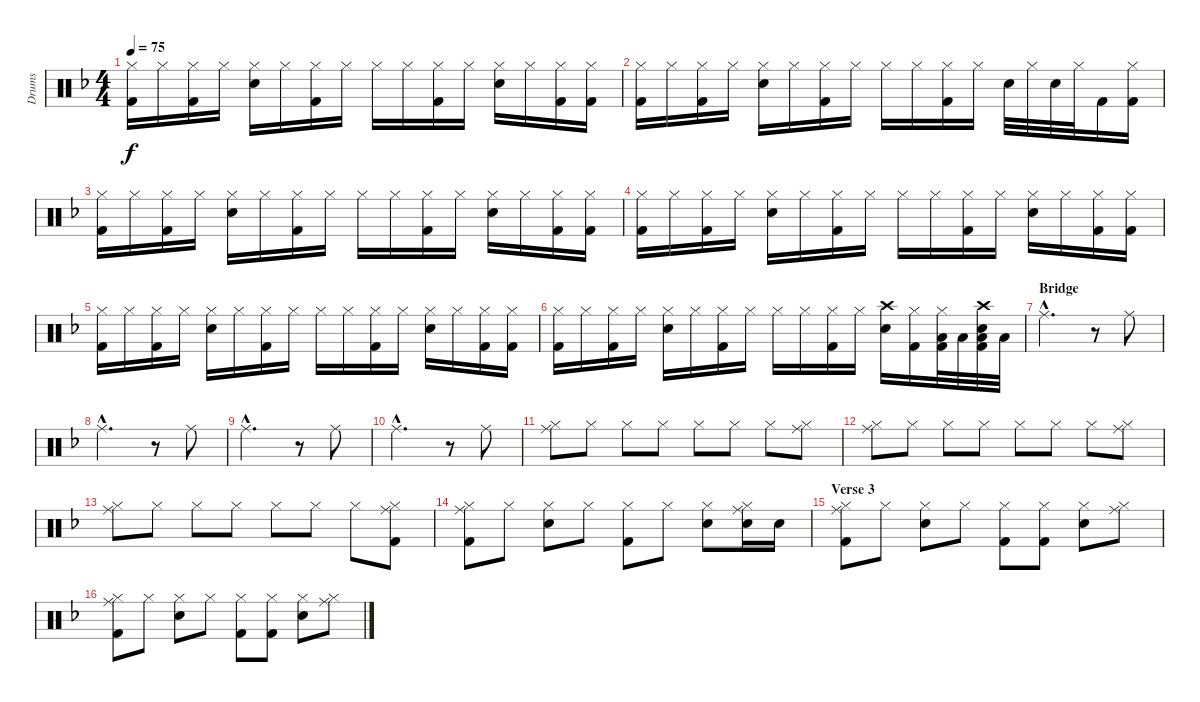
\track ("Drums" "Drums") {instrument percussion}
\staff {score}
\articulation defaults
\ts (4 4)
\tempo 75
\clef neutral
\ks dminor
("Hi-Hat (closed)" "Kick (hit) 2").16{dy f} "Hi-Hat (closed)".16 ("Hi-Hat (closed)" "Kick (hit) 2").16 "Hi-Hat (closed)".16 ("Hi-Hat (closed)" "Snare (hit) 2").16 "Hi-Hat (closed)".16 ("Hi-Hat (closed)" "Kick (hit) 2").16 "Hi-Hat (closed)".16 "Hi-Hat (closed)".16 "Hi-Hat (closed)".16 ("Hi-Hat (closed)" "Kick (hit) 2").16 "Hi-Hat (closed)".16 ("Hi-Hat (closed)" "Snare (hit) 2").16 "Hi-Hat (closed)".16 ("Hi-Hat (closed)" "Kick (hit) 2").16 ("Hi-Hat (closed)" "Kick (hit) 2").16 |
("Hi-Hat (closed)" "Kick (hit) 2").16 "Hi-Hat (closed)".16 ("Hi-Hat (closed)" "Kick (hit) 2").16 "Hi-Hat (closed)".16 ("Hi-Hat (closed)" "Snare (hit) 2").16 "Hi-Hat (closed)".16 ("Hi-Hat (closed)" "Kick (hit) 2").16 "Hi-Hat (closed)".16 "Hi-Hat (closed)".16 "Hi-Hat (closed)".16 ("Hi-Hat (closed)" "Kick (hit) 2").16 "Hi-Hat (closed)".16 "Snare (hit) 2".32 "Hi-Hat (closed)".32 "Snare (hit) 2".32 "Hi-Hat (closed)".32 "Kick (hit) 2".16 ("Hi-Hat (closed)" "Kick (hit) 2").16 |
("Hi-Hat (closed)" "Kick (hit) 2").16 "Hi-Hat (closed)".16 ("Hi-Hat (closed)" "Kick (hit) 2").16 "Hi-Hat (closed)".16 ("Hi-Hat (closed)" "Snare (hit) 2").16 "Hi-Hat (closed)".16 ("Hi-Hat (closed)" "Kick (hit) 2").16 "Hi-Hat (closed)".16 "Hi-Hat (closed)".16 "Hi-Hat (closed)".16 ("Hi-Hat (closed)" "Kick (hit) 2").16 "Hi-Hat (closed)".16 ("Hi-Hat (closed)" "Snare (hit) 2").16 "Hi-Hat (closed)".16 ("Hi-Hat (closed)" "Kick (hit) 2").16 ("Hi-Hat (closed)" "Kick (hit) 2").16 |
("Hi-Hat (closed)" "Kick (hit) 2").16 "Hi-Hat (closed)".16 ("Hi-Hat (closed)" "Kick (hit) 2").16 "Hi-Hat (closed)".16 ("Hi-Hat (closed)" "Snare (hit) 2").16 "Hi-Hat (closed)".16 ("Hi-Hat (closed)" "Kick (hit) 2").16 "Hi-Hat (closed)".16 "Hi-Hat (closed)".16 "Hi-Hat (closed)".16 ("Hi-Hat (closed)" "Kick (hit) 2").16 "Hi-Hat (closed)".16 ("Hi-Hat (closed)" "Snare (hit) 2").16 "Hi-Hat (closed)".16 ("Hi-Hat (closed)" "Kick (hit) 2").16 ("Hi-Hat (closed)" "Kick (hit) 2").16 |
("Hi-Hat (closed)" "Kick (hit) 2").16 "Hi-Hat (closed)".16 ("Hi-Hat (closed)" "Kick (hit) 2").16 "Hi-Hat (closed)".16 ("Hi-Hat (closed)" "Snare (hit) 2").16 "Hi-Hat (closed)".16 ("Hi-Hat (closed)" "Kick (hit) 2").16 "Hi-Hat (closed)".16 "Hi-Hat (closed)".16 "Hi-Hat (closed)".16 ("Hi-Hat (closed)" "Kick (hit) 2").16 "Hi-Hat (closed)".16 ("Hi-Hat (closed)" "Snare (hit) 2").16 "Hi-Hat (closed)".16 ("Hi-Hat (closed)" "Kick (hit) 2").16 ("Hi-Hat (closed)" "Kick (hit) 2").16 |
("Hi-Hat (closed)" "Kick (hit) 2").16 "Hi-Hat (closed)".16 ("Hi-Hat (closed)" "Kick (hit) 2").16 "Hi-Hat (closed)".16 ("Hi-Hat (closed)" "Snare (hit) 2").16 "Hi-Hat (closed)".16 ("Hi-Hat (closed)" "Kick (hit) 2").16 "Hi-Hat (closed)".16 "Hi-Hat (closed)".16 "Hi-Hat (closed)".16 ("Hi-Hat (closed)" "Kick (hit) 2").16 "Hi-Hat (closed)".16 ("Crash high (hit)" "Snare (hit) 2").16 ("Hi-Hat (closed)" "Kick (hit) 2").16 ("Hi-Hat (closed)" "Kick (hit) 2" "Low Tom (hit)").32 "Low Tom (hit)".32 ("Crash high (hit)" "Snare (hit) 2" "Low Floor Tom (hit)" "Kick (hit) 2").32 "Low Floor Tom (hit)".32 |
\section ("" "Bridge")
"Ride (middle)"{hac}.2{d} r.8 "Ride (middle)".8 |
"Ride (middle)"{hac}.2{d} r.8 "Ride (middle)".8 |
"Ride (middle)"{hac}.2{d} r.8 "Ride (middle)".8 |
"Ride (middle)"{hac}.2{d} r.8 "Ride (middle)".8 |
("Hi-Hat (closed)" "Ride (middle)").8 "Hi-Hat (closed)".8 "Hi-Hat (closed)".8 "Hi-Hat (closed)".8 "Hi-Hat (closed)".8 "Hi-Hat (closed)".8 "Hi-Hat (closed)".8 ("Hi-Hat (closed)" "Ride (middle)").8 |
("Hi-Hat (closed)" "Ride (middle)").8 "Hi-Hat (closed)".8 "Hi-Hat (closed)".8 "Hi-Hat (closed)".8 "Hi-Hat (closed)".8 "Hi-Hat (closed)".8 "Hi-Hat (closed)".8 ("Hi-Hat (closed)" "Ride (middle)").8 |
("Hi-Hat (closed)" "Ride (middle)").8 "Hi-Hat (closed)".8 "Hi-Hat (closed)".8 "Hi-Hat (closed)".8 "Hi-Hat (closed)".8 "Hi-Hat (closed)".8 "Hi-Hat (closed)".8 ("Hi-Hat (closed)" "Ride (middle)" "Kick (hit) 2").8 |
("Hi-Hat (closed)" "Ride (middle)" "Kick (hit) 2").8 "Hi-Hat (closed)".8 ("Hi-Hat (closed)" "Snare (hit) 2").8 "Hi-Hat (closed)".8 ("Hi-Hat (closed)" "Kick (hit) 2").8 "Hi-Hat (closed)".8 ("Hi-Hat (closed)" "Snare (hit) 2").8 ("Hi-Hat (closed)" "Ride (middle)" "Snare (hit) 2").16 "Snare (hit) 2".16 |
\section ("" "Verse 3")
("Hi-Hat (closed)" "Ride (middle)" "Kick (hit) 2").8 "Hi-Hat (closed)".8 ("Hi-Hat (closed)" "Snare (hit) 2").8 "Hi-Hat (closed)".8 ("Hi-Hat (closed)" "Kick (hit) 2").8 ("Hi-Hat (closed)" "Kick (hit) 2").8 ("Hi-Hat (closed)" "Snare (hit) 2").8 ("Hi-Hat (closed)" "Ride (middle)").8 |
("Hi-Hat (closed)" "Ride (middle)" "Kick (hit) 2").8 "Hi-Hat (closed)".8 ("Hi-Hat (closed)" "Snare (hit) 2").8 "Hi-Hat (closed)".8 ("Hi-Hat (closed)" "Kick (hit) 2").8 ("Hi-Hat (closed)" "Kick (hit) 2").8 ("Hi-Hat (closed)" "Snare (hit) 2").8 ("Hi-Hat (closed)" "Ride (middle)").8
